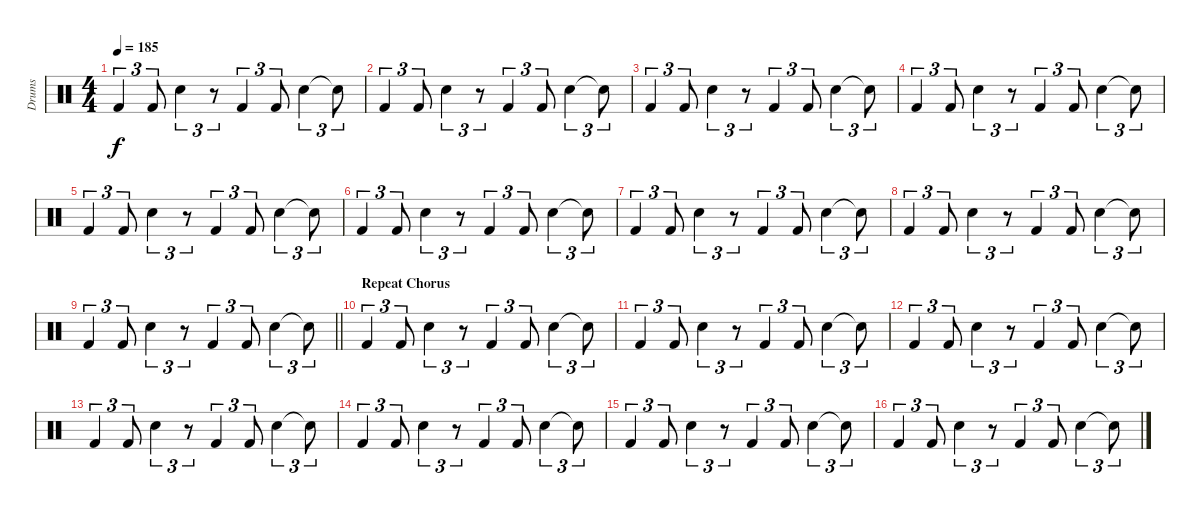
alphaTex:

\track ("Drums" "Drums") {instrument percussion}
\staff {score}
\articulation defaults
\ts (4 4)
\tempo 185
\clef neutral
\ks c "Kick (hit) 2".4{tu (3 2) dy f} "Kick (hit) 2".8{tu (3 2)} "Snare (hit) 2".4{tu (3 2)}
r.8{tu (3 2)} "Kick (hit) 2".4{tu (3 2)} "Kick (hit) 2".8{tu (3 2)} "Snare (hit) 2".4{tu (3 2)} "Snare (hit)"{t}.8{tu (3 2)} |
"Kick (hit) 2".4{tu (3 2)} "Kick (hit) 2".8{tu (3 2)} "Snare (hit) 2".4{tu (3 2)} r.8{tu (3 2)} "Kick (hit) 2".4{tu (3 2)} "Kick (hit) 2".8{tu (3 2)} "Snare (hit) 2".4{tu (3 2)} "Snare (hit)"{t}.8{tu (3 2)} |
"Kick (hit) 2".4{tu (3 2)} "Kick (hit) 2".8{tu (3 2)} "Snare (hit) 2".4{tu (3 2)} r.8{tu (3 2)} "Kick (hit) 2".4{tu (3 2)} "Kick (hit) 2".8{tu (3 2)} "Snare (hit) 2".4{tu (3 2)} "Snare (hit)"{t}.8{tu (3 2)} |
"Kick (hit) 2".4{tu (3 2)} "Kick (hit) 2".8{tu (3 2)} "Snare (hit) 2".4{tu (3 2)} r.8{tu (3 2)} "Kick (hit) 2".4{tu (3 2)} "Kick (hit) 2".8{tu (3 2)} "Snare (hit) 2".4{tu (3 2)} "Snare (hit)"{t}.8{tu (3 2)} |
"Kick (hit) 2".4{tu (3 2)} "Kick (hit) 2".8{tu (3 2)} "Snare (hit) 2".4{tu (3 2)} r.8{tu (3 2)} "Kick (hit) 2".4{tu (3 2)} "Kick (hit) 2".8{tu (3 2)} "Snare (hit) 2".4{tu (3 2)} "Snare (hit)"{t}.8{tu (3 2)} |
"Kick (hit) 2".4{tu (3 2)} "Kick (hit) 2".8{tu (3 2)} "Snare (hit) 2".4{tu (3 2)} r.8{tu (3 2)} "Kick (hit) 2".4{tu (3 2)} "Kick (hit) 2".8{tu (3 2)} "Snare (hit) 2".4{tu (3 2)} "Snare (hit)"{t}.8{tu (3 2)} |
"Kick (hit) 2".4{tu (3 2)} "Kick (hit) 2".8{tu (3 2)} "Snare (hit) 2".4{tu (3 2)} r.8{tu (3 2)} "Kick (hit) 2".4{tu (3 2)} "Kick (hit) 2".8{tu (3 2)} "Snare (hit) 2".4{tu (3 2)} "Snare (hit)"{t}.8{tu (3 2)} |
"Kick (hit) 2".4{tu (3 2)} "Kick (hit) 2".8{tu (3 2)} "Snare (hit) 2".4{tu (3 2)} r.8{tu (3 2)} "Kick (hit) 2".4{tu (3 2)} "Kick (hit) 2".8{tu (3 2)} "Snare (hit) 2".4{tu (3 2)} "Snare (hit)"{t}.8{tu (3 2)} |
\barLineRight lightlight "Kick (hit) 2".4{tu (3 2)} "Kick (hit) 2".8{tu (3 2)} "Snare (hit) 2".4{tu (3 2)}
r.8{tu (3 2)} "Kick (hit) 2".4{tu (3 2)} "Kick (hit) 2".8{tu (3 2)} "Snare (hit) 2".4{tu (3 2)} "Snare (hit)"{t}.8{tu (3 2)} |
\section ("" "Repeat Chorus")
"Kick (hit) 2".4{tu (3 2)} "Kick (hit) 2".8{tu (3 2)} "Snare (hit) 2".4{tu (3 2)} r.8{tu (3 2)} "Kick (hit) 2".4{tu (3 2)} "Kick (hit) 2".8{tu (3 2)} "Snare (hit) 2".4{tu (3 2)} "Snare (hit)"{t}.8{tu (3 2)} |
"Kick (hit) 2".4{tu (3 2)} "Kick (hit) 2".8{tu (3 2)} "Snare (hit) 2".4{tu (3 2)} r.8{tu (3 2)} "Kick (hit) 2".4{tu (3 2)} "Kick (hit) 2".8{tu (3 2)} "Snare (hit) 2".4{tu (3 2)} "Snare (hit)"{t}.8{tu (3 2)} |
"Kick (hit) 2".4{tu (3 2)} "Kick (hit) 2".8{tu (3 2)} "Snare (hit) 2".4{tu (3 2)} r.8{tu (3 2)} "Kick (hit) 2".4{tu (3 2)} "Kick (hit) 2".8{tu (3 2)} "Snare (hit) 2".4{tu (3 2)} "Snare (hit)"{t}.8{tu (3 2)} |
"Kick (hit) 2".4{tu (3 2)} "Kick (hit) 2".8{tu (3 2)} "Snare (hit) 2".4{tu (3 2)} r.8{tu (3 2)} "Kick (hit) 2".4{tu (3 2)} "Kick (hit) 2".8{tu (3 2)} "Snare (hit) 2".4{tu (3 2)} "Snare (hit)"{t}.8{tu (3 2)} |
"Kick (hit) 2".4{tu (3 2)} "Kick (hit) 2".8{tu (3 2)} "Snare (hit) 2".4{tu (3 2)} r.8{tu (3 2)} "Kick (hit) 2".4{tu (3 2)} "Kick (hit) 2".8{tu (3 2)} "Snare (hit) 2".4{tu (3 2)} "Snare (hit)"{t}.8{tu (3 2)} |
"Kick (hit) 2".4{tu (3 2)} "Kick (hit) 2".8{tu (3 2)} "Snare (hit) 2".4{tu (3 2)} r.8{tu (3 2)} "Kick (hit) 2".4{tu (3 2)} "Kick (hit) 2".8{tu (3 2)} "Snare (hit) 2".4{tu (3 2)} "Snare (hit)"{t}.8{tu (3 2)} |
"Kick (hit) 2".4{tu (3 2)} "Kick (hit) 2".8{tu (3 2)} "Snare (hit) 2".4{tu (3 2)} r.8{tu (3 2)} "Kick (hit) 2".4{tu (3 2)} "Kick (hit) 2".8{tu (3 2)} "Snare (hit) 2".4{tu (3 2)} "Snare (hit)"{t}.8{tu (3 2)}
